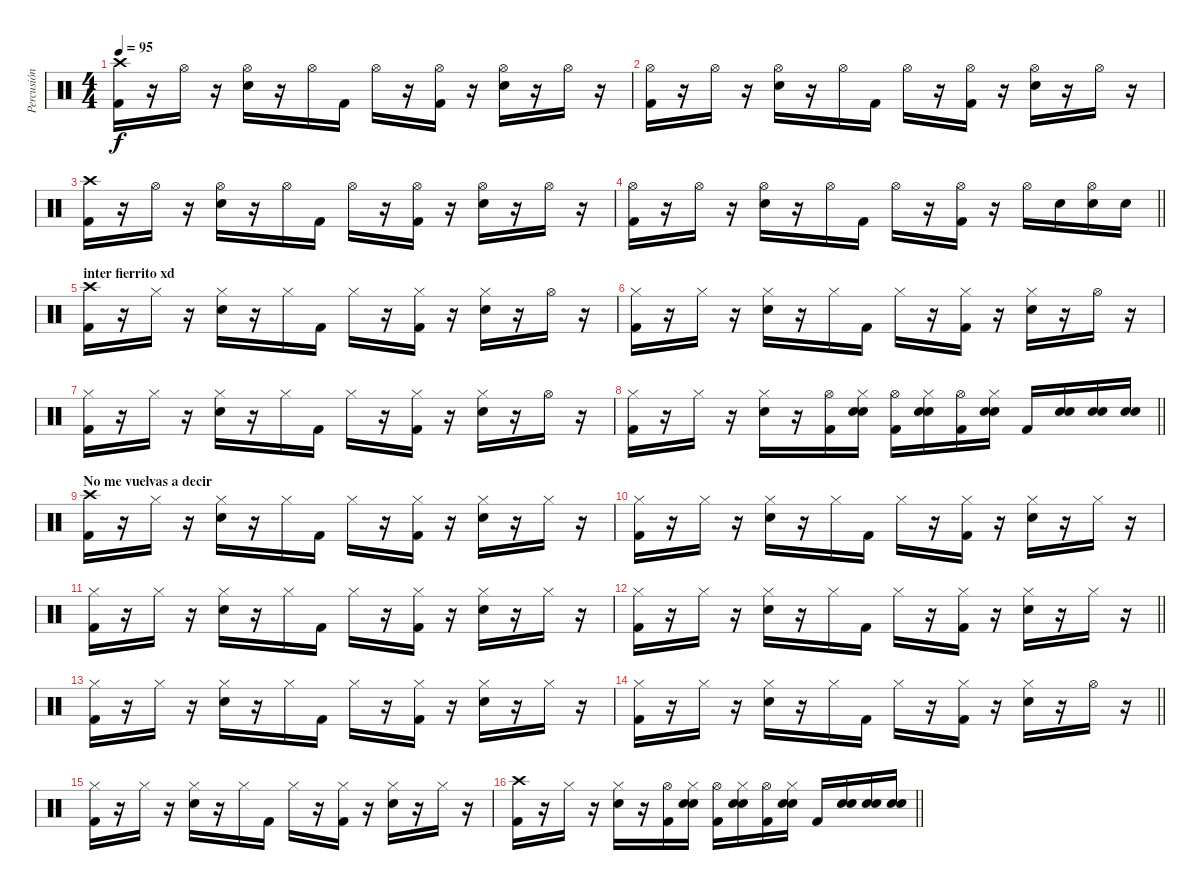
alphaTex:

\track ("Percusión" "Percusión") {instrument percussion}
\staff {score}
\articulation defaults
\ts (4 4)
\tempo 95
\clef neutral
\ks c
("Crash high (hit)" "Kick (hit) 2").16{dy f} r.16 "Hi-Hat (open)".16 r.16 ("Hi-Hat (open)" "Snare (hit) 2").16 r.16 "Hi-Hat (open)".16 "Kick (hit) 2".16 "Hi-Hat (open)".16 r.16 ("Hi-Hat (open)" "Kick (hit) 2").16 r.16 ("Hi-Hat (open)" "Snare (hit) 2").16 r.16 "Hi-Hat (open)".16 r.16 |
("Hi-Hat (open)" "Kick (hit) 2").16 r.16 "Hi-Hat (open)".16 r.16 ("Hi-Hat (open)" "Snare (hit) 2").16 r.16 "Hi-Hat (open)".16 "Kick (hit) 2".16 "Hi-Hat (open)".16 r.16 ("Hi-Hat (open)" "Kick (hit) 2").16 r.16 ("Hi-Hat (open)" "Snare (hit) 2").16 r.16 "Hi-Hat (open)".16 r.16 |
("Crash high (hit)" "Kick (hit) 2").16 r.16 "Hi-Hat (open)".16 r.16 ("Hi-Hat (open)" "Snare (hit) 2").16 r.16 "Hi-Hat (open)".16 "Kick (hit) 2".16 "Hi-Hat (open)".16 r.16 ("Hi-Hat (open)" "Kick (hit) 2").16 r.16 ("Hi-Hat (open)" "Snare (hit) 2").16 r.16 "Hi-Hat (open)".16 r.16 |
\barLineRight lightlight
("Hi-Hat (open)" "Kick (hit) 2").16 r.16 "Hi-Hat (open)".16 r.16 ("Hi-Hat (open)" "Snare (hit) 2").16 r.16 "Hi-Hat (open)".16 "Kick (hit) 2".16 "Hi-Hat (open)".16 r.16 ("Hi-Hat (open)" "Kick (hit) 2").16 r.16 "Hi-Hat (open)".16 "Snare (hit) 2".16 ("Hi-Hat (open)" "Snare (hit) 2").16 "Snare (hit) 2".16 |
\section ("" "inter fierrito xd")
("Crash high (hit)" "Kick (hit) 2").16 r.16 "Hi-Hat (closed)".16 r.16 ("Hi-Hat (closed)" "Snare (hit) 2").16 r.16 "Hi-Hat (closed)".16 "Kick (hit) 2".16 "Hi-Hat (closed)".16 r.16 ("Hi-Hat (closed)" "Kick (hit) 2").16 r.16 ("Hi-Hat (closed)" "Snare (hit) 2").16 r.16 "Hi-Hat (open)".16 r.16 |
("Hi-Hat (closed)" "Kick (hit) 2").16 r.16 "Hi-Hat (closed)".16 r.16 ("Hi-Hat (closed)" "Snare (hit) 2").16 r.16 "Hi-Hat (closed)".16 "Kick (hit) 2".16 "Hi-Hat (closed)".16 r.16 ("Hi-Hat (closed)" "Kick (hit) 2").16 r.16 ("Hi-Hat (closed)" "Snare (hit) 2").16 r.16 "Hi-Hat (open)".16 r.16 |
("Hi-Hat (closed)" "Kick (hit) 2").16 r.16 "Hi-Hat (closed)".16 r.16 ("Hi-Hat (closed)" "Snare (hit) 2").16 r.16 "Hi-Hat (closed)".16 "Kick (hit) 2".16 "Hi-Hat (closed)".16 r.16 ("Hi-Hat (closed)" "Kick (hit) 2").16 r.16 ("Hi-Hat (closed)" "Snare (hit) 2").16 r.16 "Hi-Hat (open)".16 r.16 |
\barLineRight lightlight
("Hi-Hat (closed)" "Kick (hit) 2").16 r.16 "Hi-Hat (closed)".16 r.16 ("Hi-Hat (closed)" "Snare (hit) 2").16 r.16 ("Hi-Hat (open)" "Kick (hit) 2").16 ("Hi-Hat (closed)" "Snare (hit) 2" "Snare (hit) 2").16 ("Hi-Hat (open)" "Kick (hit) 2").16 ("Hi-Hat (closed)" "Snare (hit) 2" "Snare (hit) 2").16 ("Hi-Hat (open)" "Kick (hit) 2").16 ("Hi-Hat (closed)" "Snare (hit) 2" "Snare (hit) 2").16 "Kick (hit) 2".16 ("Snare (hit) 2" "Snare (hit) 2").16 ("Snare (hit) 2" "Snare (hit) 2").16 ("Snare (hit) 2" "Snare (hit) 2").16 |
\section ("" "No me vuelvas a decir")
("Crash high (hit)" "Kick (hit) 2").16 r.16 "Hi-Hat (closed)".16 r.16 ("Hi-Hat (closed)" "Snare (hit) 2").16 r.16 "Hi-Hat (closed)".16 "Kick (hit) 2".16 "Hi-Hat (closed)".16 r.16 ("Hi-Hat (closed)" "Kick (hit) 2").16 r.16 ("Hi-Hat (closed)" "Snare (hit) 2").16 r.16 "Hi-Hat (closed)".16 r.16 |
("Hi-Hat (closed)" "Kick (hit) 2").16 r.16 "Hi-Hat (closed)".16 r.16 ("Hi-Hat (closed)" "Snare (hit) 2").16 r.16 "Hi-Hat (closed)".16 "Kick (hit) 2".16 "Hi-Hat (closed)".16 r.16 ("Hi-Hat (closed)" "Kick (hit) 2").16 r.16 ("Hi-Hat (closed)" "Snare (hit) 2").16 r.16 "Hi-Hat (closed)".16 r.16 |
("Hi-Hat (closed)" "Kick (hit) 2").16 r.16 "Hi-Hat (closed)".16 r.16 ("Hi-Hat (closed)" "Snare (hit) 2").16 r.16 "Hi-Hat (closed)".16 "Kick (hit) 2".16 "Hi-Hat (closed)".16 r.16 ("Hi-Hat (closed)" "Kick (hit) 2").16 r.16 ("Hi-Hat (closed)" "Snare (hit) 2").16 r.16 "Hi-Hat (closed)".16 r.16 |
\barLineRight lightlight
("Hi-Hat (closed)" "Kick (hit) 2").16 r.16 "Hi-Hat (closed)".16 r.16 ("Hi-Hat (closed)" "Snare (hit) 2").16 r.16 "Hi-Hat (closed)".16 "Kick (hit) 2".16 "Hi-Hat (closed)".16 r.16 ("Hi-Hat (closed)" "Kick (hit) 2").16 r.16 ("Hi-Hat (closed)" "Snare (hit) 2").16 r.16 "Hi-Hat (closed)".16 r.16 |
("Hi-Hat (closed)" "Kick (hit) 2").16 r.16 "Hi-Hat (closed)".16 r.16 ("Hi-Hat (closed)" "Snare (hit) 2").16 r.16 "Hi-Hat (closed)".16 "Kick (hit) 2".16 "Hi-Hat (closed)".16 r.16 ("Hi-Hat (closed)" "Kick (hit) 2").16 r.16 ("Hi-Hat (closed)" "Snare (hit) 2").16 r.16 "Hi-Hat (closed)".16 r.16 |
\barLineRight lightlight
("Hi-Hat (closed)" "Kick (hit) 2").16 r.16 "Hi-Hat (closed)".16 r.16 ("Hi-Hat (closed)" "Snare (hit) 2").16 r.16 "Hi-Hat (closed)".16 "Kick (hit) 2".16 "Hi-Hat (closed)".16 r.16 ("Hi-Hat (closed)" "Kick (hit) 2").16 r.16 ("Hi-Hat (closed)" "Snare (hit) 2").16 r.16 "Hi-Hat (open)".16 r.16 |
("Hi-Hat (closed)" "Kick (hit) 2").16 r.16 "Hi-Hat (closed)".16 r.16 ("Hi-Hat (closed)" "Snare (hit) 2").16 r.16 "Hi-Hat (closed)".16 "Kick (hit) 2".16 "Hi-Hat (closed)".16 r.16 ("Hi-Hat (closed)" "Kick (hit) 2").16 r.16 ("Hi-Hat (closed)" "Snare (hit) 2").16 r.16 "Hi-Hat (closed)".16 r.16 |
\barLineRight lightlight
("Crash high (hit)" "Kick (hit) 2").16 r.16 "Hi-Hat (closed)".16 r.16 ("Hi-Hat (closed)" "Snare (hit) 2").16 r.16 ("Hi-Hat (open)" "Kick (hit) 2").16 ("Hi-Hat (closed)" "Snare (hit) 2" "Snare (hit) 2").16 ("Hi-Hat (open)" "Kick (hit) 2").16 ("Hi-Hat (closed)" "Snare (hit) 2" "Snare (hit) 2").16 ("Hi-Hat (open)" "Kick (hit) 2").16 ("Hi-Hat (closed)" "Snare (hit) 2" "Snare (hit) 2").16 "Kick (hit) 2".16 ("Snare (hit) 2" "Snare (hit) 2").16 ("Snare (hit) 2" "Snare (hit) 2").16 ("Snare (hit) 2" "Snare (hit) 2").16
